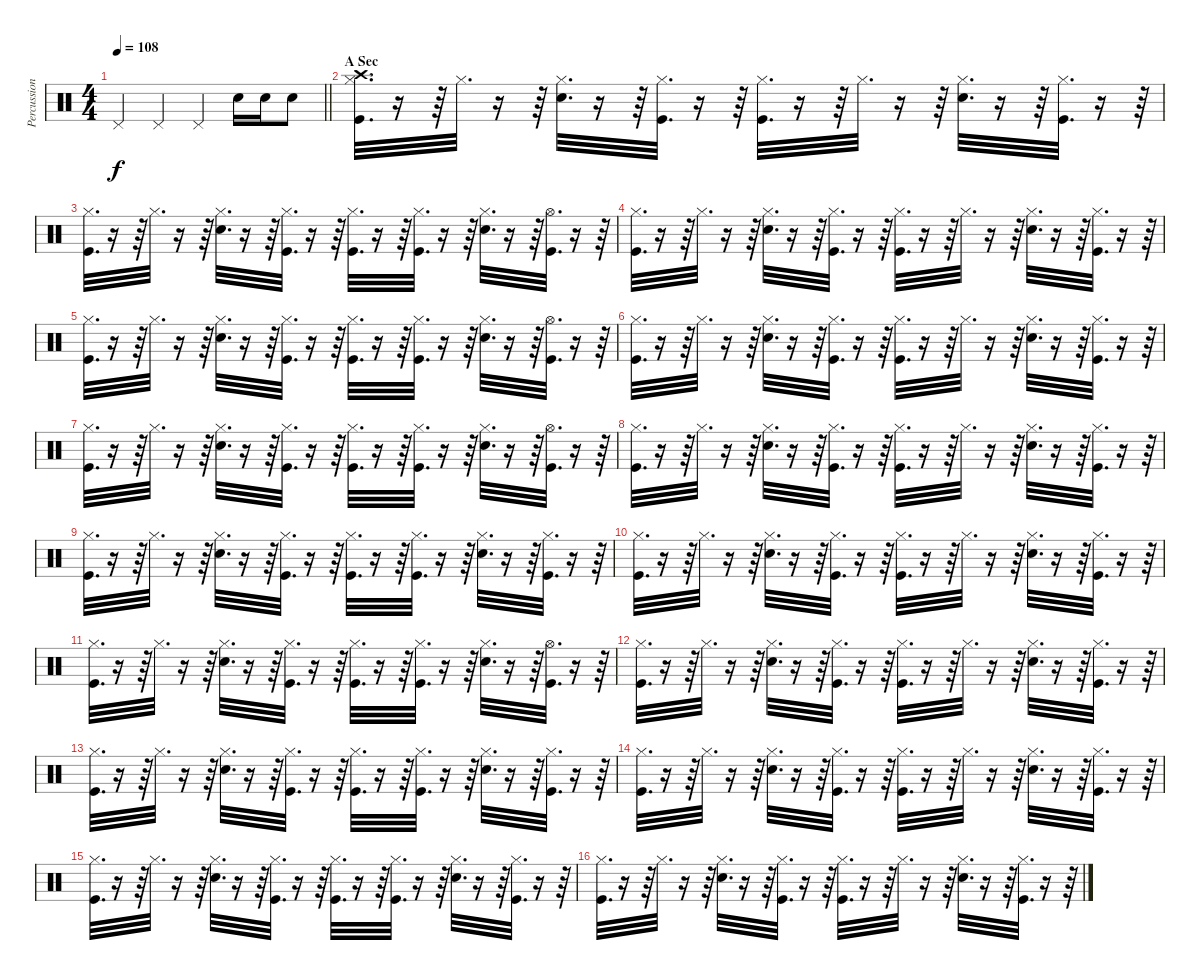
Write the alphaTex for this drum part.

\track ("Percussions" "Percussion") {instrument percussion}
\staff {score}
\articulation defaults
\ts (4 4)
\tempo 108
\clef neutral
\barLineRight lightlight
\ks c "Pedal Hi-Hat (hit)".4{dy f} "Pedal Hi-Hat (hit)".4 "Pedal Hi-Hat (hit)".4 "Snare (hit) 2".16 "Snare (hit) 2".16 "Snare (hit) 2".8
|
\section ("" "A Sec")
("Crash high (hit)" "Kick (hit)" "Hi-Hat (closed)").32{d} r.16 r.64 "Hi-Hat (closed)".32{d} r.16 r.64 ("Hi-Hat (closed)" "Snare (hit) 2").32{d} r.16 r.64 ("Hi-Hat (closed)" "Kick (hit)").32{d} r.16 r.64 ("Hi-Hat (closed)" "Kick (hit)").32{d} r.16 r.64 "Hi-Hat (closed)".32{d} r.16{txt ""} r.64 ("Hi-Hat (closed)" "Snare (hit) 2").32{d} r.16 r.64 ("Hi-Hat (closed)" "Kick (hit)").32{d} r.16 r.64 |
("Hi-Hat (closed)" "Kick (hit)").32{d} r.16 r.64 "Hi-Hat (closed)".32{d} r.16 r.64 ("Hi-Hat (closed)" "Snare (hit) 2").32{d} r.16 r.64 ("Hi-Hat (closed)" "Kick (hit)").32{d} r.16 r.64 ("Hi-Hat (closed)" "Kick (hit)").32{d} r.16 r.64 ("Hi-Hat (closed)" "Kick (hit)").32{d} r.16 r.64 ("Hi-Hat (closed)" "Snare (hit) 2").32{d} r.16 r.64 ("Hi-Hat (open)" "Kick (hit)").32{d} r.16 r.64 |
("Hi-Hat (closed)" "Kick (hit)").32{d} r.16 r.64 "Hi-Hat (closed)".32{d} r.16 r.64 ("Hi-Hat (closed)" "Snare (hit) 2").32{d} r.16 r.64 ("Hi-Hat (closed)" "Kick (hit)").32{d} r.16 r.64 ("Hi-Hat (closed)" "Kick (hit)").32{d} r.16 r.64 "Hi-Hat (closed)".32{d} r.16 r.64 ("Hi-Hat (closed)" "Snare (hit) 2").32{d} r.16 r.64 ("Hi-Hat (closed)" "Kick (hit)").32{d} r.16 r.64 |
("Hi-Hat (closed)" "Kick (hit)").32{d} r.16 r.64 "Hi-Hat (closed)".32{d} r.16 r.64 ("Hi-Hat (closed)" "Snare (hit) 2").32{d} r.16 r.64 ("Hi-Hat (closed)" "Kick (hit)").32{d} r.16 r.64 ("Hi-Hat (closed)" "Kick (hit)").32{d} r.16 r.64 ("Hi-Hat (closed)" "Kick (hit)").32{d} r.16 r.64 ("Hi-Hat (closed)" "Snare (hit) 2").32{d} r.16 r.64 ("Hi-Hat (open)" "Kick (hit)").32{d} r.16 r.64 |
("Hi-Hat (closed)" "Kick (hit)").32{d} r.16 r.64 "Hi-Hat (closed)".32{d} r.16 r.64 ("Hi-Hat (closed)" "Snare (hit) 2").32{d} r.16 r.64 ("Hi-Hat (closed)" "Kick (hit)").32{d} r.16 r.64 ("Hi-Hat (closed)" "Kick (hit)").32{d} r.16 r.64 "Hi-Hat (closed)".32{d} r.16 r.64 ("Hi-Hat (closed)" "Snare (hit) 2").32{d} r.16 r.64 ("Hi-Hat (closed)" "Kick (hit)").32{d} r.16 r.64 |
("Hi-Hat (closed)" "Kick (hit)").32{d} r.16 r.64 "Hi-Hat (closed)".32{d} r.16 r.64 ("Hi-Hat (closed)" "Snare (hit) 2").32{d} r.16 r.64 ("Hi-Hat (closed)" "Kick (hit)").32{d} r.16 r.64 ("Hi-Hat (closed)" "Kick (hit)").32{d} r.16 r.64 ("Hi-Hat (closed)" "Kick (hit)").32{d} r.16 r.64 ("Hi-Hat (closed)" "Snare (hit) 2").32{d} r.16 r.64 ("Hi-Hat (open)" "Kick (hit)").32{d} r.16 r.64 |
("Hi-Hat (closed)" "Kick (hit)").32{d} r.16 r.64 "Hi-Hat (closed)".32{d} r.16 r.64 ("Hi-Hat (closed)" "Snare (hit) 2").32{d} r.16 r.64 ("Hi-Hat (closed)" "Kick (hit)").32{d} r.16 r.64 ("Hi-Hat (closed)" "Kick (hit)").32{d} r.16 r.64 "Hi-Hat (closed)".32{d} r.16 r.64 ("Hi-Hat (closed)" "Snare (hit) 2").32{d} r.16 r.64 ("Hi-Hat (closed)" "Kick (hit)").32{d} r.16 r.64 |
("Hi-Hat (closed)" "Kick (hit)").32{d} r.16 r.64 "Hi-Hat (closed)".32{d} r.16 r.64 ("Hi-Hat (closed)" "Snare (hit) 2").32{d} r.16 r.64 ("Hi-Hat (closed)" "Kick (hit)").32{d} r.16 r.64 ("Hi-Hat (closed)" "Kick (hit)").32{d} r.16 r.64 ("Hi-Hat (closed)" "Kick (hit)").32{d} r.16 r.64 ("Hi-Hat (closed)" "Snare (hit) 2").32{d} r.16 r.64 ("Hi-Hat (closed)" "Kick (hit)").32{d} r.16 r.64 |
("Hi-Hat (closed)" "Kick (hit)").32{d} r.16 r.64 "Hi-Hat (closed)".32{d} r.16 r.64 ("Hi-Hat (closed)" "Snare (hit) 2").32{d} r.16 r.64 ("Hi-Hat (closed)" "Kick (hit)").32{d} r.16 r.64 ("Hi-Hat (closed)" "Kick (hit)").32{d} r.16 r.64 "Hi-Hat (closed)".32{d} r.16 r.64 ("Hi-Hat (closed)" "Snare (hit) 2").32{d} r.16 r.64 ("Hi-Hat (closed)" "Kick (hit)").32{d} r.16 r.64 |
("Hi-Hat (closed)" "Kick (hit)").32{d} r.16 r.64 "Hi-Hat (closed)".32{d} r.16 r.64 ("Hi-Hat (closed)" "Snare (hit) 2").32{d} r.16 r.64 ("Hi-Hat (closed)" "Kick (hit)").32{d} r.16 r.64 ("Hi-Hat (closed)" "Kick (hit)").32{d} r.16 r.64 ("Hi-Hat (closed)" "Kick (hit)").32{d} r.16 r.64 ("Hi-Hat (closed)" "Snare (hit) 2").32{d} r.16 r.64 ("Hi-Hat (open)" "Kick (hit)").32{d} r.16 r.64 |
("Hi-Hat (closed)" "Kick (hit)").32{d} r.16 r.64 "Hi-Hat (closed)".32{d} r.16 r.64 ("Hi-Hat (closed)" "Snare (hit) 2").32{d} r.16 r.64 ("Hi-Hat (closed)" "Kick (hit)").32{d} r.16 r.64{txt ""} ("Hi-Hat (closed)" "Kick (hit)").32{d} r.16 r.64 "Hi-Hat (closed)".32{d} r.16 r.64 ("Hi-Hat (closed)" "Snare (hit) 2").32{d} r.16 r.64 ("Hi-Hat (closed)" "Kick (hit)").32{d} r.16 r.64 |
("Hi-Hat (closed)" "Kick (hit)").32{d} r.16 r.64 "Hi-Hat (closed)".32{d} r.16 r.64 ("Hi-Hat (closed)" "Snare (hit) 2").32{d} r.16 r.64 ("Hi-Hat (closed)" "Kick (hit)").32{d} r.16 r.64 ("Hi-Hat (closed)" "Kick (hit)").32{d} r.16 r.64 ("Hi-Hat (closed)" "Kick (hit)").32{d} r.16 r.64 ("Hi-Hat (closed)" "Snare (hit) 2").32{d} r.16 r.64 ("Hi-Hat (closed)" "Kick (hit)").32{d} r.16 r.64 |
("Hi-Hat (closed)" "Kick (hit)").32{d} r.16 r.64 "Hi-Hat (closed)".32{d} r.16 r.64 ("Hi-Hat (closed)" "Snare (hit) 2").32{d} r.16 r.64 ("Hi-Hat (closed)" "Kick (hit)").32{d} r.16 r.64 ("Hi-Hat (closed)" "Kick (hit)").32{d} r.16 r.64 "Hi-Hat (closed)".32{d} r.16 r.64 ("Hi-Hat (closed)" "Snare (hit) 2").32{d} r.16 r.64 ("Hi-Hat (closed)" "Kick (hit)").32{d} r.16 r.64 |
("Hi-Hat (closed)" "Kick (hit)").32{d} r.16 r.64 "Hi-Hat (closed)".32{d} r.16 r.64 ("Hi-Hat (closed)" "Snare (hit) 2").32{d} r.16 r.64 ("Hi-Hat (closed)" "Kick (hit)").32{d} r.16 r.64 ("Hi-Hat (closed)" "Kick (hit)").32{d} r.16 r.64 ("Hi-Hat (closed)" "Kick (hit)").32{d} r.16 r.64 ("Hi-Hat (closed)" "Snare (hit) 2").32{d} r.16 r.64 ("Hi-Hat (closed)" "Kick (hit)").32{d} r.16 r.64 |
("Hi-Hat (closed)" "Kick (hit)").32{d} r.16 r.64 "Hi-Hat (closed)".32{d} r.16 r.64 ("Hi-Hat (closed)" "Snare (hit) 2").32{d} r.16 r.64 ("Hi-Hat (closed)" "Kick (hit)").32{d} r.16 r.64 ("Hi-Hat (closed)" "Kick (hit)").32{d} r.16 r.64 "Hi-Hat (closed)".32{d} r.16 r.64 ("Hi-Hat (closed)" "Snare (hit) 2").32{d} r.16 r.64 ("Hi-Hat (closed)" "Kick (hit)").32{d} r.16 r.64
